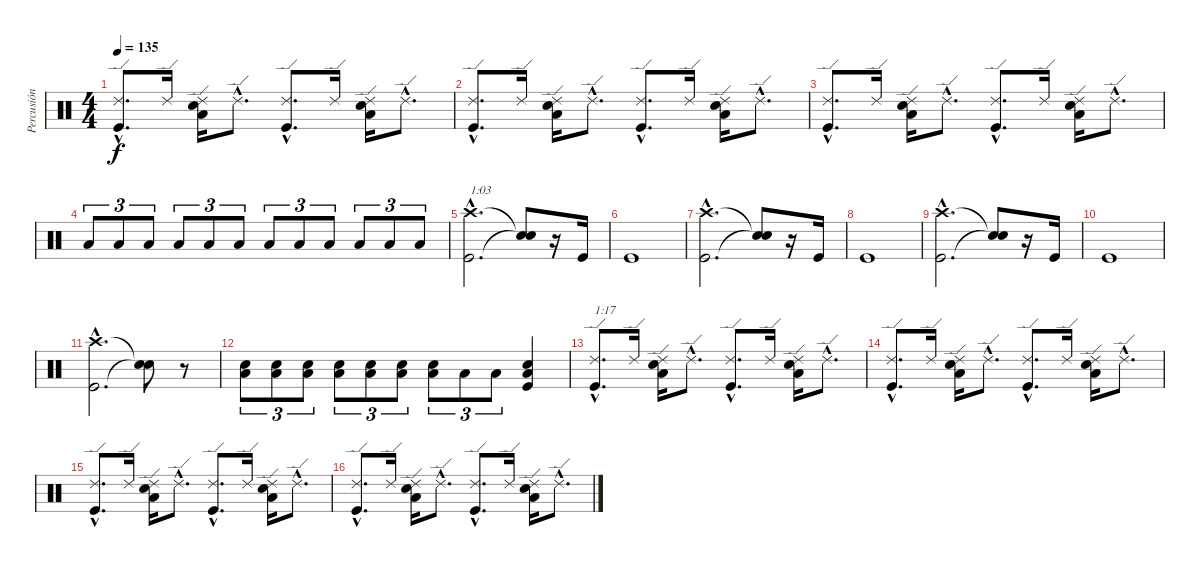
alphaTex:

\track ("Percusión" "Percusión") {instrument percussion}
\staff {score}
\articulation defaults
\ts (4 4)
\tempo 135
\clef neutral
\ks c
("Kick (hit)"{hac} "Ride (edge) 2"{hac}).8{d dy f} "Ride (edge) 2".16 ("Snare (hit) 2" "Low Tom (hit)" "Ride (edge) 2").16 "Ride (edge) 2"{hac}.8{d} ("Kick (hit)"{hac} "Ride (edge) 2"{hac}).8{d} "Ride (edge) 2".16 ("Snare (hit) 2" "Low Tom (hit)" "Ride (edge) 2").16 "Ride (edge) 2"{hac}.8{d} |
("Kick (hit)"{hac} "Ride (edge) 2"{hac}).8{d} "Ride (edge) 2".16 ("Snare (hit) 2" "Low Tom (hit)" "Ride (edge) 2").16 "Ride (edge) 2"{hac}.8{d} ("Kick (hit)"{hac} "Ride (edge) 2"{hac}).8{d} "Ride (edge) 2".16 ("Snare (hit) 2" "Low Tom (hit)" "Ride (edge) 2").16 "Ride (edge) 2"{hac}.8{d} |
("Kick (hit)"{hac} "Ride (edge) 2"{hac}).8{d} "Ride (edge) 2".16 ("Snare (hit) 2" "Low Tom (hit)" "Ride (edge) 2").16 "Ride (edge) 2"{hac}.8{d} ("Kick (hit)"{hac} "Ride (edge) 2"{hac}).8{d} "Ride (edge) 2".16 ("Snare (hit) 2" "Low Tom (hit)" "Ride (edge) 2").16 "Ride (edge) 2"{hac}.8{d} |
"Low Tom (hit)".8{tu (3 2)} "Low Tom (hit)".8{tu (3 2)} "Low Tom (hit)".8{tu (3 2)} "Low Tom (hit)".8{tu (3 2)} "Low Tom (hit)".8{tu (3 2)} "Low Tom (hit)".8{tu (3 2)} "Low Tom (hit)".8{tu (3 2)} "Low Tom (hit)".8{tu (3 2)} "Low Tom (hit)".8{tu (3 2)} "Low Tom (hit)".8{tu (3 2)} "Low Tom (hit)".8{tu (3 2)} "Low Tom (hit)".8{tu (3 2)} |
("Kick (hit)"{hac} "Crash high (hit)"{hac}).2{d txt "1:03"} ("Snare (hit)"{t} "Snare (hit)"{t}).8 r.16 "Kick (hit)".16 |
"Kick (hit)".1 |
("Kick (hit)"{hac} "Crash high (hit)"{hac}).2{d} ("Snare (hit)"{t} "Snare (hit)"{t}).8 r.16 "Kick (hit)".16 |
"Kick (hit)".1 |
("Kick (hit)"{hac} "Crash high (hit)"{hac}).2{d} ("Snare (hit)"{t} "Snare (hit)"{t}).8 r.16 "Kick (hit)".16 |
"Kick (hit)".1 |
("Kick (hit)"{hac} "Crash high (hit)"{hac}).2{d} ("Snare (hit)"{t} "Snare (hit)"{t}).8 r.8 |
("Snare (hit) 2" "Low Tom (hit)").8{tu (3 2)} ("Snare (hit) 2" "Low Tom (hit)").8{tu (3 2)} ("Snare (hit) 2" "Low Tom (hit)").8{tu (3 2)} ("Snare (hit) 2" "Low Tom (hit)").8{tu (3 2)} ("Snare (hit) 2" "Low Tom (hit)").8{tu (3 2)} ("Snare (hit) 2" "Low Tom (hit)").8{tu (3 2)} ("Snare (hit) 2" "Low Tom (hit)").8{tu (3 2)} "Low Tom (hit)".8{tu (3 2)} "Low Tom (hit)".8{tu (3 2)} ("Kick (hit)" "Snare (hit) 2" "Low Tom (hit)").4 |
("Kick (hit)"{hac} "Ride (edge) 2"{hac}).8{d txt "1:17"} "Ride (edge) 2".16 ("Snare (hit) 2" "Low Tom (hit)" "Ride (edge) 2").16 "Ride (edge) 2"{hac}.8{d} ("Kick (hit)"{hac} "Ride (edge) 2"{hac}).8{d} "Ride (edge) 2".16 ("Snare (hit) 2" "Low Tom (hit)" "Ride (edge) 2").16 "Ride (edge) 2"{hac}.8{d} |
("Kick (hit)"{hac} "Ride (edge) 2"{hac}).8{d} "Ride (edge) 2".16 ("Snare (hit) 2" "Low Tom (hit)" "Ride (edge) 2").16 "Ride (edge) 2"{hac}.8{d} ("Kick (hit)"{hac} "Ride (edge) 2"{hac}).8{d} "Ride (edge) 2".16 ("Snare (hit) 2" "Low Tom (hit)" "Ride (edge) 2").16 "Ride (edge) 2"{hac}.8{d} |
("Kick (hit)"{hac} "Ride (edge) 2"{hac}).8{d} "Ride (edge) 2".16 ("Snare (hit) 2" "Low Tom (hit)" "Ride (edge) 2").16 "Ride (edge) 2"{hac}.8{d} ("Kick (hit)"{hac} "Ride (edge) 2"{hac}).8{d} "Ride (edge) 2".16 ("Snare (hit) 2" "Low Tom (hit)" "Ride (edge) 2").16 "Ride (edge) 2"{hac}.8{d} |
("Kick (hit)"{hac} "Ride (edge) 2"{hac}).8{d} "Ride (edge) 2".16 ("Snare (hit) 2" "Low Tom (hit)" "Ride (edge) 2").16 "Ride (edge) 2"{hac}.8{d} ("Kick (hit)"{hac} "Ride (edge) 2"{hac}).8{d} "Ride (edge) 2".16 ("Snare (hit) 2" "Low Tom (hit)" "Ride (edge) 2").16 "Ride (edge) 2"{hac}.8{d}
